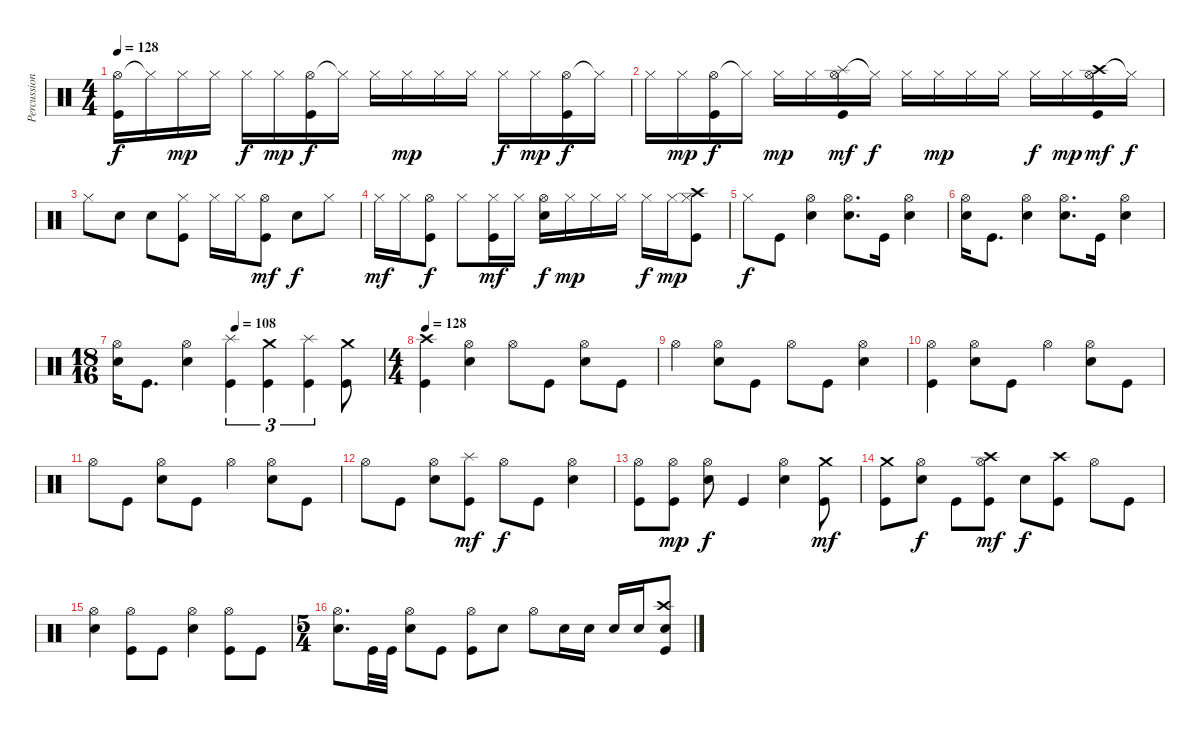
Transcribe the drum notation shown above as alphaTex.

\track ("Percussioni" "Percussion") {instrument percussion}
\staff {score}
\articulation defaults
\ts (4 4)
\tempo 128
\clef neutral
\ks c
("Hi-Hat (open)" "Kick (hit)").16{dy f} "Hi-Hat (closed)"{t}.16 "Hi-Hat (closed)".16{dy mp} "Hi-Hat (closed)".16 "Hi-Hat (closed)".16{dy f} "Hi-Hat (closed)".16{dy mp} ("Hi-Hat (open)" "Kick (hit)").16{dy f} "Hi-Hat (closed)"{t}.16 "Hi-Hat (closed)".16 "Hi-Hat (closed)".16{dy mp} "Hi-Hat (closed)".16 "Hi-Hat (closed)".16 "Hi-Hat (closed)".16{dy f} "Hi-Hat (closed)".16{dy mp} ("Hi-Hat (open)" "Kick (hit)").16{dy f} "Hi-Hat (closed)"{t}.16 |
"Hi-Hat (closed)".16 "Hi-Hat (closed)".16{dy mp} ("Hi-Hat (open)" "Kick (hit)").16{dy f} "Hi-Hat (closed)"{t}.16 "Hi-Hat (closed)".16{dy mp} "Hi-Hat (closed)".16 ("Splash (hit)" "Hi-Hat (open)" "Kick (hit)").16{dy mf} "Hi-Hat (closed)"{t}.16{dy f} "Hi-Hat (closed)".16 "Hi-Hat (closed)".16{dy mp} "Hi-Hat (closed)".16 "Hi-Hat (closed)".16 "Hi-Hat (closed)".16{dy f} "Hi-Hat (closed)".16{dy mp} ("Crash high (hit)" "Hi-Hat (open)" "Kick (hit)").16{dy mf} "Hi-Hat (closed)"{t}.16{dy f} |
"Hi-Hat (closed)".8 "Snare (hit) 2".8 "Snare (hit) 2".8 ("Hi-Hat (closed)" "Kick (hit)").8 "Hi-Hat (closed)".16 "Hi-Hat (closed)".16 ("Hi-Hat (open)" "Kick (hit)").8{dy mf} "Snare (hit) 2".8{dy f} "Hi-Hat (closed)".8 |
"Hi-Hat (closed)".16{dy mf} "Hi-Hat (closed)".16 ("Hi-Hat (open)" "Kick (hit)").8{dy f} "Hi-Hat (closed)".8 ("Hi-Hat (closed)" "Kick (hit)").16{dy mf} "Hi-Hat (closed)".16 ("Hi-Hat (open)" "Snare (hit) 2").16{dy f} "Hi-Hat (closed)".16{dy mp} "Hi-Hat (closed)".16 "Hi-Hat (closed)".16 "Hi-Hat (closed)".16{dy f} "Hi-Hat (closed)".16{dy mp} ("Crash high (hit)" "Hi-Hat (closed)" "Kick (hit)").8 |
"Hi-Hat (closed)".8{dy f} "Kick (hit)".8 ("Hi-Hat (open)" "Snare (hit) 2").4 ("Hi-Hat (open)" "Snare (hit) 2").8{d} "Kick (hit)".16 ("Hi-Hat (open)" "Snare (hit) 2").4 |
("Hi-Hat (open)" "Snare (hit) 2").16 "Kick (hit)".8{d} ("Hi-Hat (open)" "Snare (hit) 2").4 ("Hi-Hat (open)" "Snare (hit) 2").8{d} "Kick (hit)".16 ("Hi-Hat (open)" "Snare (hit) 2").4 |
\ts (18 16)
\tempo (108 0.4444444444444444)
("Hi-Hat (open)" "Snare (hit) 2").16 "Kick (hit)".8{d} ("Hi-Hat (open)" "Snare (hit) 2").4 ("Splash (hit)" "Kick (hit)").4{tu (3 2)} ("Crash medium (hit)" "Kick (hit)").4{tu (3 2)} ("Splash (hit)" "Kick (hit)").4{tu (3 2)} ("Crash medium (hit)" "Kick (hit)").8 |
\ts (4 4)
\tempo 128
("Crash high (hit)" "Kick (hit)").4 ("Hi-Hat (open)" "Snare (hit) 2").4 "Hi-Hat (open)".8 "Kick (hit)".8 ("Hi-Hat (open)" "Snare (hit) 2").8 "Kick (hit)".8 |
"Hi-Hat (open)".4 ("Hi-Hat (open)" "Snare (hit) 2").8 "Kick (hit)".8 "Hi-Hat (open)".8 "Kick (hit)".8 ("Hi-Hat (open)" "Snare (hit) 2").4 |
("Hi-Hat (open)" "Kick (hit)").4 ("Hi-Hat (open)" "Snare (hit) 2").8 "Kick (hit)".8 "Hi-Hat (open)".4 ("Hi-Hat (open)" "Snare (hit) 2").8 "Kick (hit)".8 |
"Hi-Hat (open)".8 "Kick (hit)".8 ("Hi-Hat (open)" "Snare (hit) 2").8 "Kick (hit)".8 "Hi-Hat (open)".4 ("Hi-Hat (open)" "Snare (hit) 2").8 "Kick (hit)".8 |
"Hi-Hat (open)".8 "Kick (hit)".8 ("Hi-Hat (open)" "Snare (hit) 2").8 ("Splash (hit)" "Kick (hit)").8{dy mf} "Hi-Hat (open)".8{dy f} "Kick (hit)".8 ("Hi-Hat (open)" "Snare (hit) 2").4 |
("Hi-Hat (open)" "Kick (hit)").8 ("Hi-Hat (open)" "Kick (hit)").8{dy mp} ("Hi-Hat (open)" "Snare (hit) 2").8{dy f} "Kick (hit)".4 ("Hi-Hat (open)" "Snare (hit) 2").4 ("Crash medium (hit)" "Kick (hit)").8{dy mf} |
("Crash medium (hit)" "Kick (hit)").8 ("Hi-Hat (open)" "Snare (hit) 2").8{dy f} "Kick (hit)".8 ("Crash high (hit)" "Hi-Hat (open)" "Kick (hit)").8{dy mf} "Snare (hit) 2".8{dy f} ("Crash high (hit)" "Kick (hit)").8 "Hi-Hat (open)".8 "Kick (hit)".8 |
("Hi-Hat (open)" "Snare (hit) 2").4 ("Hi-Hat (open)" "Kick (hit)").8 "Kick (hit)".8 ("Hi-Hat (open)" "Snare (hit) 2").4 ("Hi-Hat (open)" "Kick (hit)").8 "Kick (hit)".8 |
\ts (5 4)
("Hi-Hat (open)" "Snare (hit) 2").8{d} "Kick (hit)".32 "Kick (hit)".32 ("Hi-Hat (open)" "Snare (hit) 2").8 "Kick (hit)".8 ("Hi-Hat (open)" "Kick (hit)").8 "Snare (hit) 2".8 "Hi-Hat (open)".8 "Snare (hit) 2".16 "Snare (hit) 2".16 "Snare (hit) 2".16 "Snare (hit) 2".16 ("Crash high (hit)" "Snare (hit) 2" "Kick (hit)").8
